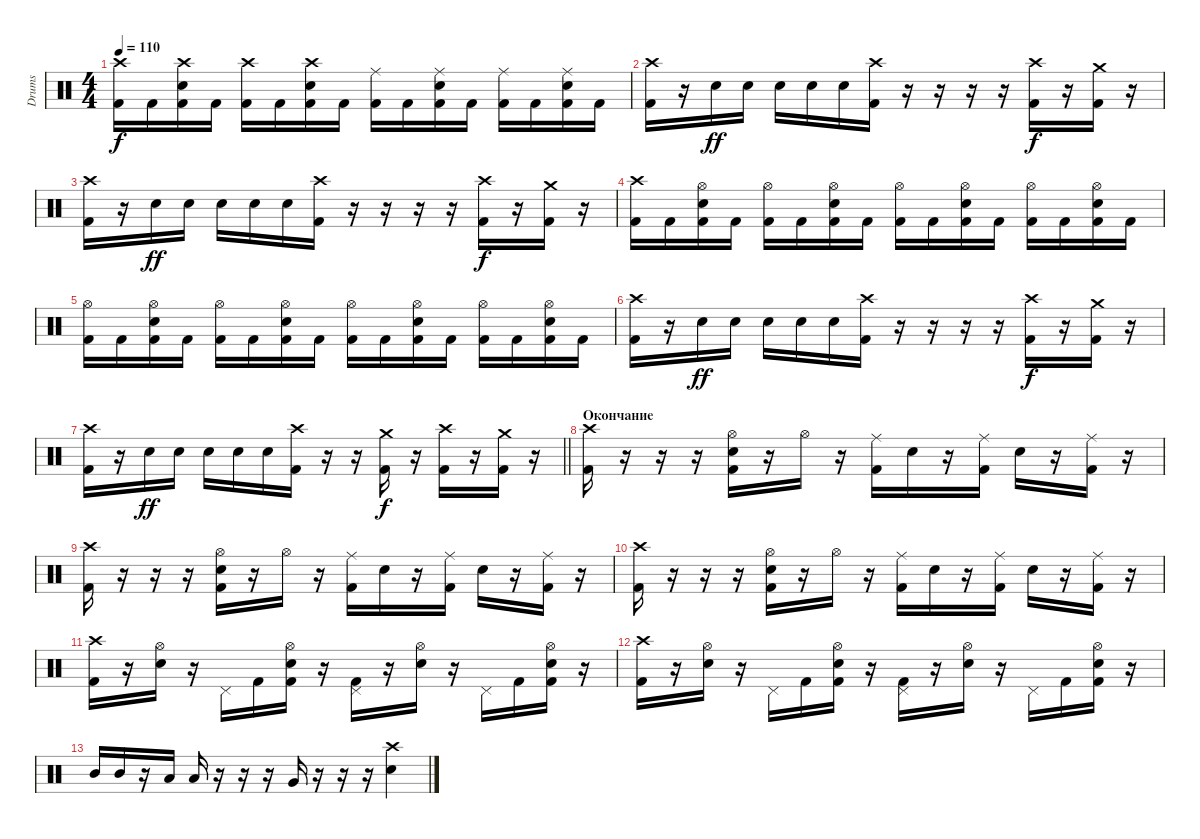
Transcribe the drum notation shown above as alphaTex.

\track ("Drums" "Drums") {instrument percussion}
\staff {score}
\articulation defaults
\ts (4 4)
\tempo 110
\clef neutral
\ks c
("Kick (hit) 2" "Crash high (hit)").16{dy f} "Kick (hit) 2".16 ("Kick (hit) 2" "Snare (hit) 2" "Crash high (hit)").16 "Kick (hit) 2".16 ("Kick (hit) 2" "Crash high (hit)").16 "Kick (hit) 2".16 ("Kick (hit) 2" "Snare (hit) 2" "Crash high (hit)").16 "Kick (hit) 2".16 ("Kick (hit) 2" "Ride (middle)").16 "Kick (hit) 2".16 ("Kick (hit) 2" "Snare (hit) 2" "Ride (middle)").16 "Kick (hit) 2".16 ("Kick (hit) 2" "Ride (middle)").16 "Kick (hit) 2".16 ("Kick (hit) 2" "Snare (hit) 2" "Ride (middle)").16 "Kick (hit) 2".16 |
("Crash high (hit)" "Kick (hit) 2").16 r.16 "Snare (hit) 2".16{dy ff} "Snare (hit) 2".16 "Snare (hit) 2".16 "Snare (hit) 2".16 "Snare (hit) 2".16 ("Crash high (hit)" "Kick (hit) 2").16 r.16 r.16 r.16 r.16 ("Crash high (hit)" "Kick (hit) 2").16{dy f} r.16 ("Crash medium (hit)" "Kick (hit) 2").16 r.16 |
("Crash high (hit)" "Kick (hit) 2").16 r.16 "Snare (hit) 2".16{dy ff} "Snare (hit) 2".16 "Snare (hit) 2".16 "Snare (hit) 2".16 "Snare (hit) 2".16 ("Crash high (hit)" "Kick (hit) 2").16 r.16 r.16 r.16 r.16 ("Crash high (hit)" "Kick (hit) 2").16{dy f} r.16 ("Crash medium (hit)" "Kick (hit) 2").16 r.16 |
("Kick (hit) 2" "Crash high (hit)").16 "Kick (hit) 2".16 ("Kick (hit) 2" "Snare (hit) 2" "Hi-Hat (open)").16 "Kick (hit) 2".16 ("Kick (hit) 2" "Hi-Hat (open)").16 "Kick (hit) 2".16 ("Kick (hit) 2" "Snare (hit) 2" "Hi-Hat (open)").16 "Kick (hit) 2".16 ("Kick (hit) 2" "Hi-Hat (open)").16 "Kick (hit) 2".16 ("Kick (hit) 2" "Snare (hit) 2" "Hi-Hat (open)").16 "Kick (hit) 2".16 ("Kick (hit) 2" "Hi-Hat (open)").16 "Kick (hit) 2".16 ("Kick (hit) 2" "Snare (hit) 2" "Hi-Hat (open)").16 "Kick (hit) 2".16 |
("Kick (hit) 2" "Hi-Hat (open)").16 "Kick (hit) 2".16 ("Kick (hit) 2" "Snare (hit) 2" "Hi-Hat (open)").16 "Kick (hit) 2".16 ("Kick (hit) 2" "Hi-Hat (open)").16 "Kick (hit) 2".16 ("Kick (hit) 2" "Snare (hit) 2" "Hi-Hat (open)").16 "Kick (hit) 2".16 ("Kick (hit) 2" "Hi-Hat (open)").16 "Kick (hit) 2".16 ("Kick (hit) 2" "Snare (hit) 2" "Hi-Hat (open)").16 "Kick (hit) 2".16 ("Kick (hit) 2" "Hi-Hat (open)").16 "Kick (hit) 2".16 ("Kick (hit) 2" "Snare (hit) 2" "Hi-Hat (open)").16 "Kick (hit) 2".16 |
("Crash high (hit)" "Kick (hit) 2").16 r.16 "Snare (hit) 2".16{dy ff} "Snare (hit) 2".16 "Snare (hit) 2".16 "Snare (hit) 2".16 "Snare (hit) 2".16 ("Crash high (hit)" "Kick (hit) 2").16 r.16 r.16 r.16 r.16 ("Crash high (hit)" "Kick (hit) 2").16{dy f} r.16 ("Crash medium (hit)" "Kick (hit) 2").16 r.16 |
\barLineRight lightlight
("Crash high (hit)" "Kick (hit) 2").16 r.16 "Snare (hit) 2".16{dy ff} "Snare (hit) 2".16 "Snare (hit) 2".16 "Snare (hit) 2".16 "Snare (hit) 2".16 ("Crash high (hit)" "Kick (hit) 2").16 r.16 r.16 ("Crash medium (hit)" "Kick (hit) 2").16{dy f} r.16 ("Crash high (hit)" "Kick (hit) 2").16 r.16 ("Crash medium (hit)" "Kick (hit) 2").16 r.16 |
\section ("" "Окончание")
("Crash high (hit)" "Kick (hit) 2").16 r.16 r.16 r.16 ("Hi-Hat (open)" "Snare (hit) 2" "Kick (hit) 2").16 r.16 "Hi-Hat (open)".16 r.16 ("Ride (middle)" "Kick (hit) 2").16 "Snare (hit) 2".16 r.16 ("Ride (middle)" "Kick (hit) 2").16 "Snare (hit) 2".16 r.16 ("Ride (middle)" "Kick (hit) 2").16 r.16 |
("Crash high (hit)" "Kick (hit) 2").16 r.16 r.16 r.16 ("Hi-Hat (open)" "Snare (hit) 2" "Kick (hit) 2").16 r.16 "Hi-Hat (open)".16 r.16 ("Ride (middle)" "Kick (hit) 2").16 "Snare (hit) 2".16 r.16 ("Ride (middle)" "Kick (hit) 2").16 "Snare (hit) 2".16 r.16 ("Ride (middle)" "Kick (hit) 2").16 r.16 |
("Crash high (hit)" "Kick (hit) 2").16 r.16 r.16 r.16 ("Hi-Hat (open)" "Snare (hit) 2" "Kick (hit) 2").16 r.16 "Hi-Hat (open)".16 r.16 ("Ride (middle)" "Kick (hit) 2").16 "Snare (hit) 2".16 r.16 ("Ride (middle)" "Kick (hit) 2").16 "Snare (hit) 2".16 r.16 ("Ride (middle)" "Kick (hit) 2").16 r.16 |
("Crash high (hit)" "Kick (hit) 2").16 r.16 ("Hi-Hat (open)" "Snare (hit) 2").16 r.16 "Pedal Hi-Hat (hit)".16 "Kick (hit) 2".16 ("Hi-Hat (open)" "Snare (hit) 2" "Kick (hit) 2").16 r.16 ("Pedal Hi-Hat (hit)" "Kick (hit) 2").16 r.16 ("Hi-Hat (open)" "Snare (hit) 2").16 r.16 "Pedal Hi-Hat (hit)".16 "Kick (hit) 2".16 ("Hi-Hat (open)" "Snare (hit) 2" "Kick (hit) 2").16 r.16 |
("Crash high (hit)" "Kick (hit) 2").16 r.16 ("Hi-Hat (open)" "Snare (hit) 2").16 r.16 "Pedal Hi-Hat (hit)".16 "Kick (hit) 2".16 ("Hi-Hat (open)" "Snare (hit) 2" "Kick (hit) 2").16 r.16 ("Pedal Hi-Hat (hit)" "Kick (hit) 2").16 r.16 ("Hi-Hat (open)" "Snare (hit) 2").16 r.16 "Pedal Hi-Hat (hit)".16 "Kick (hit) 2".16 ("Hi-Hat (open)" "Snare (hit) 2" "Kick (hit) 2").16 r.16 |
"Mid Tom (hit)".16 "Mid Tom (hit)".16 r.16 "Low Tom (hit)".16 "Low Tom (hit)".16 r.16 r.16 r.16 "Very Low Tom (hit)".16 r.16 r.16 r.16 ("Snare (hit) 2" "Crash high (hit)").4
